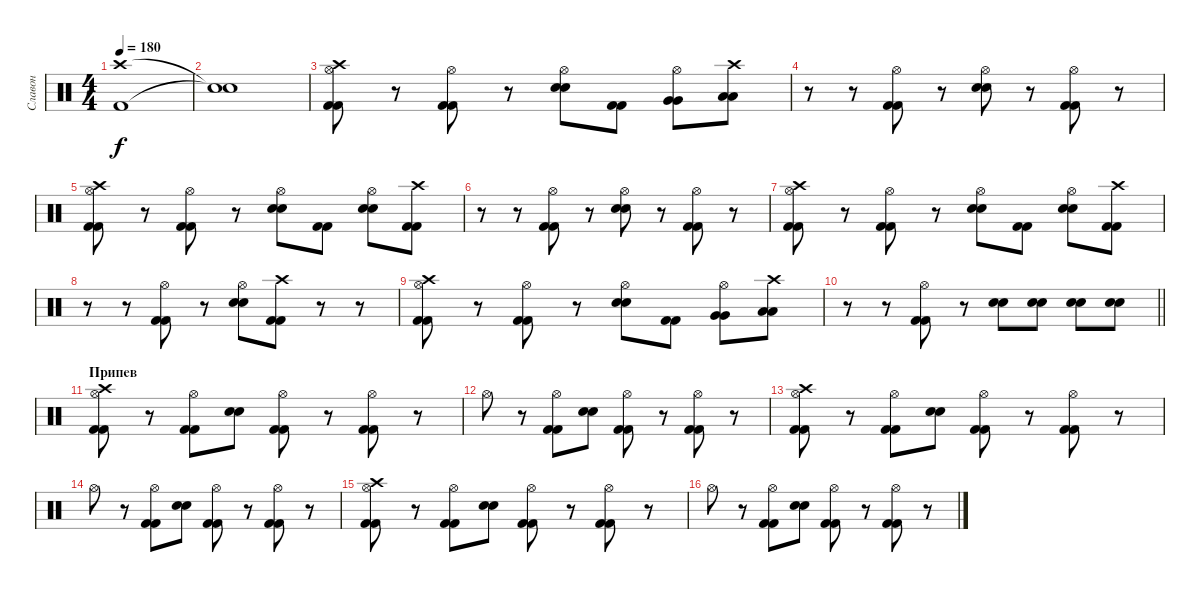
\track ("Славон" "Славон") {instrument percussion}
\staff {score}
\articulation defaults
\ts (4 4)
\tempo 180
\clef neutral
\ks c
("Crash high (hit)" "Kick (hit) 2").1{dy f} |
("Snare (hit)"{t} "Snare (hit)"{t}).1 |
("Hi-Hat (open)" "Kick (hit) 2" "Kick (hit) 2" "Crash high (hit)").8 r.8 ("Hi-Hat (open)" "Kick (hit) 2" "Kick (hit) 2").8 r.8 ("Hi-Hat (open)" "Electric Snare (hit)" "Electric Snare (hit)").8 ("Kick (hit) 2" "Kick (hit) 2").8 ("Hi-Hat (open)" "Very Low Tom (hit)" "Very Low Tom (hit)").8 ("Low Floor Tom (hit)" "Low Floor Tom (hit)" "Crash high (hit)").8 |
r.8 r.8 ("Hi-Hat (open)" "Kick (hit) 2" "Kick (hit) 2").8 r.8 ("Hi-Hat (open)" "Electric Snare (hit)" "Electric Snare (hit)").8 r.8 ("Hi-Hat (open)" "Kick (hit) 2" "Kick (hit) 2").8 r.8 |
("Hi-Hat (open)" "Kick (hit) 2" "Kick (hit) 2" "Crash high (hit)").8 r.8 ("Hi-Hat (open)" "Kick (hit) 2" "Kick (hit) 2").8 r.8 ("Hi-Hat (open)" "Electric Snare (hit)" "Electric Snare (hit)").8 ("Kick (hit) 2" "Kick (hit) 2").8 ("Hi-Hat (open)" "Electric Snare (hit)" "Electric Snare (hit)").8 ("Kick (hit) 2" "Kick (hit) 2" "Crash high (hit)").8 |
r.8 r.8 ("Hi-Hat (open)" "Kick (hit) 2" "Kick (hit) 2").8 r.8 ("Hi-Hat (open)" "Electric Snare (hit)" "Electric Snare (hit)").8 r.8 ("Hi-Hat (open)" "Kick (hit) 2" "Kick (hit) 2").8 r.8 |
("Hi-Hat (open)" "Kick (hit) 2" "Kick (hit) 2" "Crash high (hit)").8 r.8 ("Hi-Hat (open)" "Kick (hit) 2" "Kick (hit) 2").8 r.8 ("Hi-Hat (open)" "Electric Snare (hit)" "Electric Snare (hit)").8 ("Kick (hit) 2" "Kick (hit) 2").8 ("Hi-Hat (open)" "Electric Snare (hit)" "Electric Snare (hit)").8 ("Kick (hit) 2" "Kick (hit) 2" "Crash high (hit)").8 |
r.8 r.8 ("Hi-Hat (open)" "Kick (hit) 2" "Kick (hit) 2").8 r.8 ("Hi-Hat (open)" "Electric Snare (hit)" "Electric Snare (hit)").8 ("Kick (hit) 2" "Kick (hit) 2" "Crash high (hit)").8 r.8 r.8 |
("Hi-Hat (open)" "Kick (hit) 2" "Kick (hit) 2" "Crash high (hit)").8 r.8 ("Hi-Hat (open)" "Kick (hit) 2" "Kick (hit) 2").8 r.8 ("Hi-Hat (open)" "Electric Snare (hit)" "Electric Snare (hit)").8 ("Kick (hit) 2" "Kick (hit) 2").8 ("Hi-Hat (open)" "Very Low Tom (hit)" "Very Low Tom (hit)").8 ("Low Floor Tom (hit)" "Low Floor Tom (hit)" "Crash high (hit)").8 |
\barLineRight lightlight
r.8 r.8 ("Hi-Hat (open)" "Kick (hit) 2" "Kick (hit) 2").8 r.8 ("Electric Snare (hit)" "Electric Snare (hit)").8 ("Electric Snare (hit)" "Electric Snare (hit)").8 ("Electric Snare (hit)" "Electric Snare (hit)").8 ("Electric Snare (hit)" "Electric Snare (hit)").8 |
\section ("" "Припев")
("Hi-Hat (open)" "Kick (hit) 2" "Kick (hit) 2" "Crash high (hit)").8 r.8 ("Hi-Hat (open)" "Kick (hit) 2" "Kick (hit) 2").8 ("Electric Snare (hit)" "Electric Snare (hit)").8 ("Hi-Hat (open)" "Kick (hit) 2" "Kick (hit) 2").8 r.8 ("Hi-Hat (open)" "Kick (hit) 2" "Kick (hit) 2").8 r.8 |
"Hi-Hat (open)".8 r.8 ("Hi-Hat (open)" "Kick (hit) 2" "Kick (hit) 2").8 ("Electric Snare (hit)" "Electric Snare (hit)").8 ("Hi-Hat (open)" "Kick (hit) 2" "Kick (hit) 2").8 r.8 ("Hi-Hat (open)" "Kick (hit) 2" "Kick (hit) 2").8 r.8 |
("Hi-Hat (open)" "Kick (hit) 2" "Kick (hit) 2" "Crash high (hit)").8 r.8 ("Hi-Hat (open)" "Kick (hit) 2" "Kick (hit) 2").8 ("Electric Snare (hit)" "Electric Snare (hit)").8 ("Hi-Hat (open)" "Kick (hit) 2" "Kick (hit) 2").8 r.8 ("Hi-Hat (open)" "Kick (hit) 2" "Kick (hit) 2").8 r.8 |
"Hi-Hat (open)".8 r.8 ("Hi-Hat (open)" "Kick (hit) 2" "Kick (hit) 2").8 ("Electric Snare (hit)" "Electric Snare (hit)").8 ("Hi-Hat (open)" "Kick (hit) 2" "Kick (hit) 2").8 r.8 ("Hi-Hat (open)" "Kick (hit) 2" "Kick (hit) 2").8 r.8 |
("Hi-Hat (open)" "Kick (hit) 2" "Kick (hit) 2" "Crash high (hit)").8 r.8 ("Hi-Hat (open)" "Kick (hit) 2" "Kick (hit) 2").8 ("Electric Snare (hit)" "Electric Snare (hit)").8 ("Hi-Hat (open)" "Kick (hit) 2" "Kick (hit) 2").8 r.8 ("Hi-Hat (open)" "Kick (hit) 2" "Kick (hit) 2").8 r.8 |
"Hi-Hat (open)".8 r.8 ("Hi-Hat (open)" "Kick (hit) 2" "Kick (hit) 2").8 ("Electric Snare (hit)" "Electric Snare (hit)").8 ("Hi-Hat (open)" "Kick (hit) 2" "Kick (hit) 2").8 r.8 ("Hi-Hat (open)" "Kick (hit) 2" "Kick (hit) 2").8 r.8
